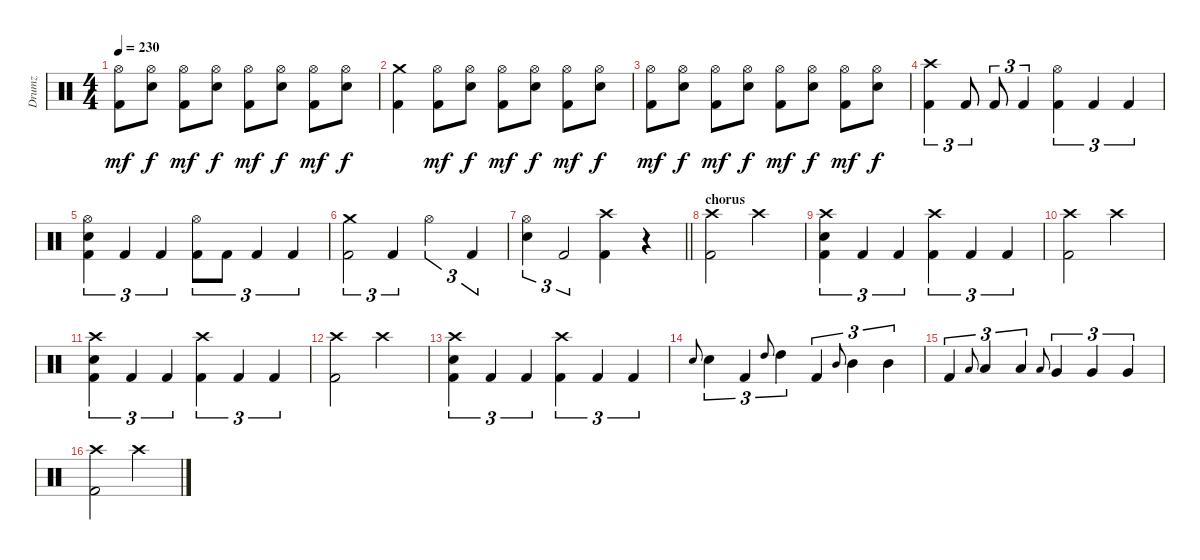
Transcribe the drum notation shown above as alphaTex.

\track ("Drumz" "Drumz") {instrument percussion}
\staff {score}
\articulation defaults
\ts (4 4)
\tempo 230
\clef neutral
\ks c
("Hi-Hat (open)" "Kick (hit) 2").8{dy mf} ("Hi-Hat (open)" "Electric Snare (hit)").8{dy f} ("Hi-Hat (open)" "Kick (hit) 2").8{dy mf} ("Hi-Hat (open)" "Electric Snare (hit)").8{dy f} ("Hi-Hat (open)" "Kick (hit) 2").8{dy mf} ("Hi-Hat (open)" "Electric Snare (hit)").8{dy f} ("Hi-Hat (open)" "Kick (hit) 2").8{dy mf} ("Hi-Hat (open)" "Electric Snare (hit)").8{dy f} |
("Crash medium (hit)" "Kick (hit) 2").4 ("Hi-Hat (open)" "Kick (hit) 2").8{dy mf} ("Hi-Hat (open)" "Electric Snare (hit)").8{dy f} ("Hi-Hat (open)" "Kick (hit) 2").8{dy mf} ("Hi-Hat (open)" "Electric Snare (hit)").8{dy f} ("Hi-Hat (open)" "Kick (hit) 2").8{dy mf} ("Hi-Hat (open)" "Electric Snare (hit)").8{dy f} |
("Hi-Hat (open)" "Kick (hit) 2").8{dy mf} ("Hi-Hat (open)" "Electric Snare (hit)").8{dy f} ("Hi-Hat (open)" "Kick (hit) 2").8{dy mf} ("Hi-Hat (open)" "Electric Snare (hit)").8{dy f} ("Hi-Hat (open)" "Kick (hit) 2").8{dy mf} ("Hi-Hat (open)" "Electric Snare (hit)").8{dy f} ("Hi-Hat (open)" "Kick (hit) 2").8{dy mf} ("Hi-Hat (open)" "Electric Snare (hit)").8{dy f} |
("Crash high (hit)" "Kick (hit) 2").4{tu (3 2)} "Kick (hit) 2".8{tu (3 2)} "Kick (hit) 2".8{tu (3 2)} "Kick (hit) 2".4{tu (3 2)} ("Hi-Hat (open)" "Kick (hit) 2").4{tu (3 2)} "Kick (hit) 2".4{tu (3 2)} "Kick (hit) 2".4{tu (3 2)} |
("Hi-Hat (open)" "Electric Snare (hit)" "Kick (hit) 2").4{tu (3 2)} "Kick (hit) 2".4{tu (3 2)} "Kick (hit) 2".4{tu (3 2)} ("Hi-Hat (open)" "Kick (hit) 2").8{tu (3 2)} "Kick (hit) 2".8{tu (3 2)} "Kick (hit) 2".4{tu (3 2)} "Kick (hit) 2".4{tu (3 2)} |
("Crash medium (hit)" "Kick (hit) 2").2{tu (3 2)} "Kick (hit) 2".4{tu (3 2)} "Hi-Hat (open)".2{tu (3 2)} "Kick (hit) 2".4{tu (3 2)} |
\barLineRight lightlight
("Hi-Hat (open)" "Electric Snare (hit)").4{tu (3 2)} "Kick (hit) 2".2{tu (3 2)} ("Crash high (hit)" "Kick (hit) 2").4 r.4{volume 0} |
\section ("" "chorus")
("Crash high (hit)" "Kick (hit) 2").2{volume 15} "Crash high (hit)".2 |
("Crash high (hit)" "Electric Snare (hit)" "Kick (hit) 2").4{tu (3 2)} "Kick (hit) 2".4{tu (3 2)} "Kick (hit) 2".4{tu (3 2)} ("Crash high (hit)" "Kick (hit) 2").4{tu (3 2)} "Kick (hit) 2".4{tu (3 2)} "Kick (hit) 2".4{tu (3 2)} |
("Crash high (hit)" "Kick (hit) 2").2 "Crash high (hit)".2 |
("Crash high (hit)" "Electric Snare (hit)" "Kick (hit) 2").4{tu (3 2)} "Kick (hit) 2".4{tu (3 2)} "Kick (hit) 2".4{tu (3 2)} ("Crash high (hit)" "Kick (hit) 2").4{tu (3 2)} "Kick (hit) 2".4{tu (3 2)} "Kick (hit) 2".4{tu (3 2)} |
("Crash high (hit)" "Kick (hit) 2").2 "Crash high (hit)".2 |
("Crash high (hit)" "Electric Snare (hit)" "Kick (hit) 2").4{tu (3 2)} "Kick (hit) 2".4{tu (3 2)} "Kick (hit) 2".4{tu (3 2)} ("Crash high (hit)" "Kick (hit) 2").4{tu (3 2)} "Kick (hit) 2".4{tu (3 2)} "Kick (hit) 2".4{tu (3 2)} |
"Electric Snare (hit)".8{gr onbeat} "Electric Snare (hit)".4{tu (3 2)} "Kick (hit) 2".4{tu (3 2)} "High Tom (hit)".8{gr onbeat} "High Tom (hit)".4{tu (3 2)} "Kick (hit) 2".4{tu (3 2)} "Mid Tom (hit)".8{gr onbeat} "Mid Tom (hit)".4{tu (3 2)} "Mid Tom (hit)".4{tu (3 2)} |
"Kick (hit) 2".4{tu (3 2)} "Low Tom (hit)".8{gr onbeat} "Low Tom (hit)".4{tu (3 2)} "Low Tom (hit)".4{tu (3 2)} "Low Tom (hit)".8{gr onbeat} "Very Low Tom (hit)".4{tu (3 2)} "Very Low Tom (hit)".4{tu (3 2)} "Very Low Tom (hit)".4{tu (3 2)} |
("Crash high (hit)" "Kick (hit) 2").2 "Crash high (hit)".2
